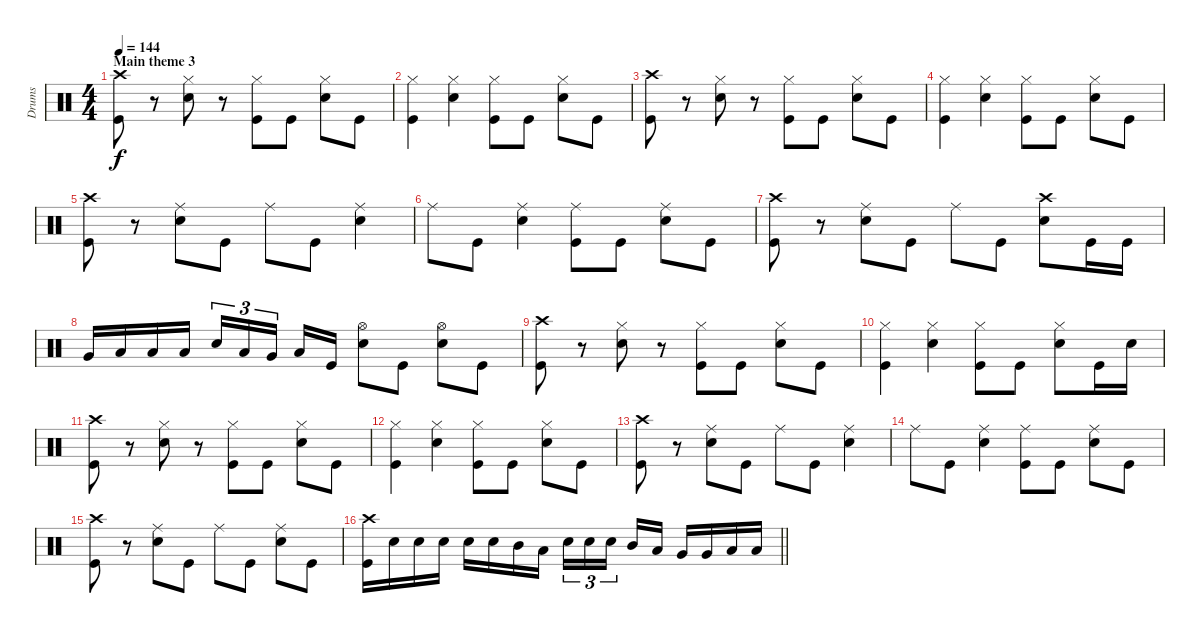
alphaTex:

\track ("Drums" "Drums") {instrument percussion}
\staff {score}
\articulation defaults
\ts (4 4)
\section ("" "Main theme 3")
\tempo 144
\clef neutral
\ks c
("Crash high (hit)" "Kick (hit)").8{dy f} r.8 ("Hi-Hat (closed)" "Electric Snare (hit)").8 r.8 ("Hi-Hat (closed)" "Kick (hit)").8 "Kick (hit)".8 ("Hi-Hat (closed)" "Electric Snare (hit)").8 "Kick (hit)".8 |
("Hi-Hat (closed)" "Kick (hit)").4 ("Hi-Hat (closed)" "Electric Snare (hit)").4 ("Hi-Hat (closed)" "Kick (hit)").8 "Kick (hit)".8 ("Hi-Hat (closed)" "Electric Snare (hit)").8 "Kick (hit)".8 |
("Crash high (hit)" "Kick (hit)").8 r.8 ("Hi-Hat (closed)" "Electric Snare (hit)").8 r.8 ("Hi-Hat (closed)" "Kick (hit)").8 "Kick (hit)".8 ("Hi-Hat (closed)" "Electric Snare (hit)").8 "Kick (hit)".8 |
("Hi-Hat (closed)" "Kick (hit)").4 ("Hi-Hat (closed)" "Electric Snare (hit)").4 ("Hi-Hat (closed)" "Kick (hit)").8 "Kick (hit)".8 ("Hi-Hat (closed)" "Electric Snare (hit)").8 "Kick (hit)".8 |
("Crash high (hit)" "Kick (hit)").8 r.8 ("Ride (middle)" "Electric Snare (hit)").8 "Kick (hit)".8 "Ride (middle)".8 "Kick (hit)".8 ("Ride (middle)" "Electric Snare (hit)").4 |
"Ride (middle)".8 "Kick (hit)".8 ("Ride (middle)" "Electric Snare (hit)").4 ("Ride (middle)" "Kick (hit)").8 "Kick (hit)".8 ("Ride (middle)" "Electric Snare (hit)").8 "Kick (hit)".8 |
("Crash high (hit)" "Kick (hit)").8 r.8 ("Ride (middle)" "Electric Snare (hit)").8 "Kick (hit)".8 "Ride (middle)".8 "Kick (hit)".8 ("Crash high (hit)" "Electric Snare (hit)").8 "Kick (hit)".16 "Kick (hit)".16 |
"Very Low Tom (hit)".16 "Low Floor Tom (hit)".16 "Low Floor Tom (hit)".16 "Low Floor Tom (hit)".16 "Electric Snare (hit)".16{tu (3 2)} "Low Tom (hit)".16{tu (3 2)} "Very Low Tom (hit)".16{tu (3 2) beam splitsecondary} "Low Floor Tom (hit)".16 "Kick (hit)".16 ("Hi-Hat (open)" "Electric Snare (hit)").8 "Kick (hit)".8 ("Hi-Hat (open)" "Electric Snare (hit)").8 "Kick (hit)".8 |
("Crash high (hit)" "Kick (hit)").8 r.8 ("Hi-Hat (closed)" "Electric Snare (hit)").8 r.8 ("Hi-Hat (closed)" "Kick (hit)").8 "Kick (hit)".8 ("Hi-Hat (closed)" "Electric Snare (hit)").8 "Kick (hit)".8 |
("Hi-Hat (closed)" "Kick (hit)").4 ("Hi-Hat (closed)" "Electric Snare (hit)").4 ("Hi-Hat (closed)" "Kick (hit)").8 "Kick (hit)".8 ("Hi-Hat (closed)" "Electric Snare (hit)").8 "Kick (hit)".16 "Electric Snare (hit)".16 |
("Crash high (hit)" "Kick (hit)").8 r.8 ("Hi-Hat (closed)" "Electric Snare (hit)").8 r.8 ("Hi-Hat (closed)" "Kick (hit)").8 "Kick (hit)".8 ("Hi-Hat (closed)" "Electric Snare (hit)").8 "Kick (hit)".8 |
("Hi-Hat (closed)" "Kick (hit)").4 ("Hi-Hat (closed)" "Electric Snare (hit)").4 ("Hi-Hat (closed)" "Kick (hit)").8 "Kick (hit)".8 ("Hi-Hat (closed)" "Electric Snare (hit)").8 "Kick (hit)".8 |
("Crash high (hit)" "Kick (hit)").8 r.8 ("Ride (middle)" "Electric Snare (hit)").8 "Kick (hit)".8 "Ride (middle)".8 "Kick (hit)".8 ("Ride (middle)" "Electric Snare (hit)").4 |
"Ride (middle)".8 "Kick (hit)".8 ("Ride (middle)" "Electric Snare (hit)").4 ("Ride (middle)" "Kick (hit)").8 "Kick (hit)".8 ("Ride (middle)" "Electric Snare (hit)").8 "Kick (hit)".8 |
("Crash high (hit)" "Kick (hit)").8 r.8 ("Ride (middle)" "Electric Snare (hit)").8 "Kick (hit)".8 "Ride (middle)".8 "Kick (hit)".8 ("Ride (middle)" "Electric Snare (hit)").8 "Kick (hit)".8 |
\barLineRight lightlight
("Crash high (hit)" "Kick (hit)").16 "Electric Snare (hit)".16 "Electric Snare (hit)".16 "Electric Snare (hit)".16 "Electric Snare (hit)".16 "Electric Snare (hit)".16 "Mid Tom (hit)".16 "Low Tom (hit)".16 "Electric Snare (hit)".16{tu (3 2)} "Electric Snare (hit)".16{tu (3 2)} "Electric Snare (hit)".16{tu (3 2) beam splitsecondary} "Mid Tom (hit)".16 "Low Tom (hit)".16 "Very Low Tom (hit)".16 "Very Low Tom (hit)".16 "Low Floor Tom (hit)".16 "Low Floor Tom (hit)".16
